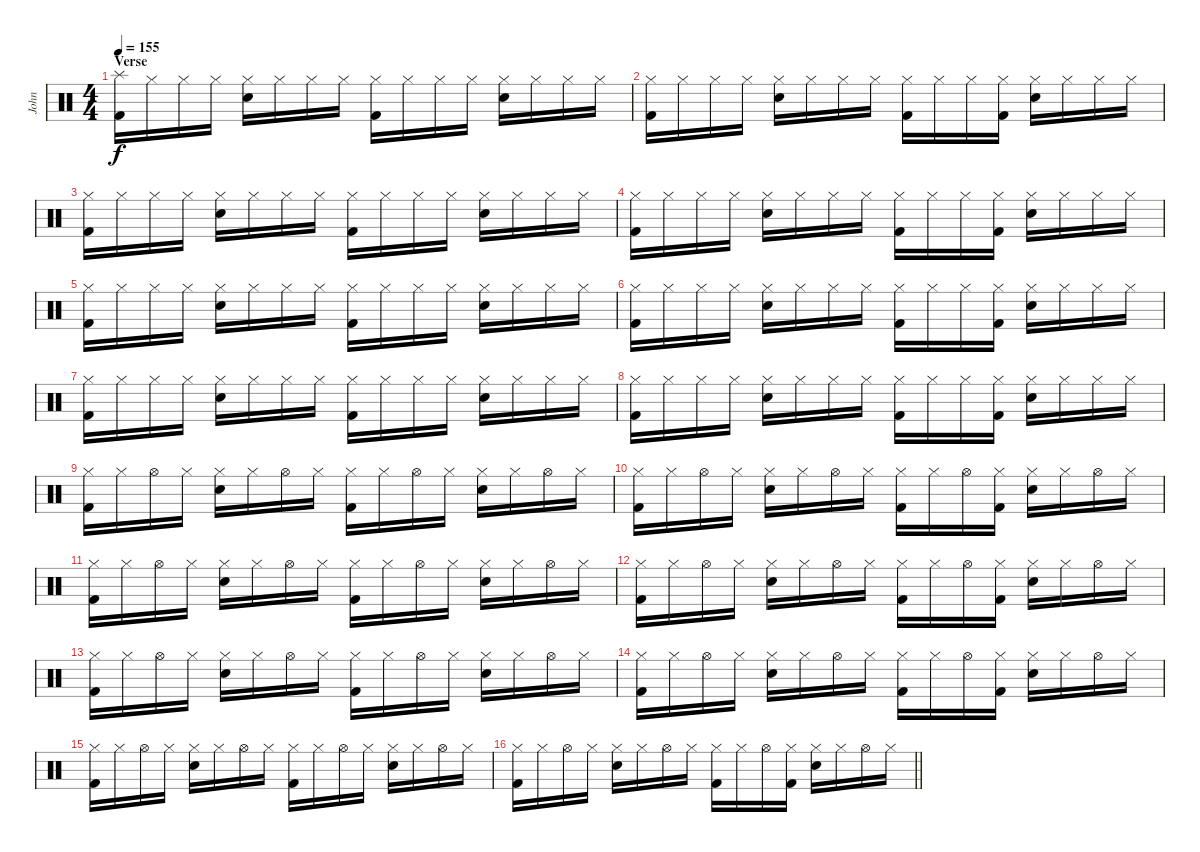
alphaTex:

\track ("John" "John") {instrument percussion}
\staff {score}
\articulation defaults
\ts (4 4)
\section ("" "Verse")
\tempo 155
\clef neutral
\ks c
("Splash (hit)" "Kick (hit) 2").16{dy f} "Hi-Hat (closed)".16 "Hi-Hat (closed)".16 "Hi-Hat (closed)".16 ("Hi-Hat (closed)" "Snare (hit) 2").16 "Hi-Hat (closed)".16 "Hi-Hat (closed)".16 "Hi-Hat (closed)".16 ("Hi-Hat (closed)" "Kick (hit) 2").16 "Hi-Hat (closed)".16 "Hi-Hat (closed)".16 "Hi-Hat (closed)".16 ("Hi-Hat (closed)" "Snare (hit) 2").16 "Hi-Hat (closed)".16 "Hi-Hat (closed)".16 "Hi-Hat (closed)".16 |
("Hi-Hat (closed)" "Kick (hit) 2").16 "Hi-Hat (closed)".16 "Hi-Hat (closed)".16 "Hi-Hat (closed)".16 ("Hi-Hat (closed)" "Snare (hit) 2").16 "Hi-Hat (closed)".16 "Hi-Hat (closed)".16 "Hi-Hat (closed)".16 ("Hi-Hat (closed)" "Kick (hit) 2").16 "Hi-Hat (closed)".16 "Hi-Hat (closed)".16 ("Hi-Hat (closed)" "Kick (hit) 2").16 ("Hi-Hat (closed)" "Snare (hit) 2").16 "Hi-Hat (closed)".16 "Hi-Hat (closed)".16 "Hi-Hat (closed)".16 |
("Hi-Hat (closed)" "Kick (hit) 2").16 "Hi-Hat (closed)".16 "Hi-Hat (closed)".16 "Hi-Hat (closed)".16 ("Hi-Hat (closed)" "Snare (hit) 2").16 "Hi-Hat (closed)".16 "Hi-Hat (closed)".16 "Hi-Hat (closed)".16 ("Hi-Hat (closed)" "Kick (hit) 2").16 "Hi-Hat (closed)".16 "Hi-Hat (closed)".16 "Hi-Hat (closed)".16 ("Hi-Hat (closed)" "Snare (hit) 2").16 "Hi-Hat (closed)".16 "Hi-Hat (closed)".16 "Hi-Hat (closed)".16 |
("Hi-Hat (closed)" "Kick (hit) 2").16 "Hi-Hat (closed)".16 "Hi-Hat (closed)".16 "Hi-Hat (closed)".16 ("Hi-Hat (closed)" "Snare (hit) 2").16 "Hi-Hat (closed)".16 "Hi-Hat (closed)".16 "Hi-Hat (closed)".16 ("Hi-Hat (closed)" "Kick (hit) 2").16 "Hi-Hat (closed)".16 "Hi-Hat (closed)".16 ("Hi-Hat (closed)" "Kick (hit) 2").16 ("Hi-Hat (closed)" "Snare (hit) 2").16 "Hi-Hat (closed)".16 "Hi-Hat (closed)".16 "Hi-Hat (closed)".16 |
("Hi-Hat (closed)" "Kick (hit) 2").16 "Hi-Hat (closed)".16 "Hi-Hat (closed)".16 "Hi-Hat (closed)".16 ("Hi-Hat (closed)" "Snare (hit) 2").16 "Hi-Hat (closed)".16 "Hi-Hat (closed)".16 "Hi-Hat (closed)".16 ("Hi-Hat (closed)" "Kick (hit) 2").16 "Hi-Hat (closed)".16 "Hi-Hat (closed)".16 "Hi-Hat (closed)".16 ("Hi-Hat (closed)" "Snare (hit) 2").16 "Hi-Hat (closed)".16 "Hi-Hat (closed)".16 "Hi-Hat (closed)".16 |
("Hi-Hat (closed)" "Kick (hit) 2").16 "Hi-Hat (closed)".16 "Hi-Hat (closed)".16 "Hi-Hat (closed)".16 ("Hi-Hat (closed)" "Snare (hit) 2").16 "Hi-Hat (closed)".16 "Hi-Hat (closed)".16 "Hi-Hat (closed)".16 ("Hi-Hat (closed)" "Kick (hit) 2").16 "Hi-Hat (closed)".16 "Hi-Hat (closed)".16 ("Hi-Hat (closed)" "Kick (hit) 2").16 ("Hi-Hat (closed)" "Snare (hit) 2").16 "Hi-Hat (closed)".16 "Hi-Hat (closed)".16 "Hi-Hat (closed)".16 |
("Hi-Hat (closed)" "Kick (hit) 2").16 "Hi-Hat (closed)".16 "Hi-Hat (closed)".16 "Hi-Hat (closed)".16 ("Hi-Hat (closed)" "Snare (hit) 2").16 "Hi-Hat (closed)".16 "Hi-Hat (closed)".16 "Hi-Hat (closed)".16 ("Hi-Hat (closed)" "Kick (hit) 2").16 "Hi-Hat (closed)".16 "Hi-Hat (closed)".16 "Hi-Hat (closed)".16 ("Hi-Hat (closed)" "Snare (hit) 2").16 "Hi-Hat (closed)".16 "Hi-Hat (closed)".16 "Hi-Hat (closed)".16 |
("Hi-Hat (closed)" "Kick (hit) 2").16 "Hi-Hat (closed)".16 "Hi-Hat (closed)".16 "Hi-Hat (closed)".16 ("Hi-Hat (closed)" "Snare (hit) 2").16 "Hi-Hat (closed)".16 "Hi-Hat (closed)".16 "Hi-Hat (closed)".16 ("Hi-Hat (closed)" "Kick (hit) 2").16 "Hi-Hat (closed)".16 "Hi-Hat (closed)".16 ("Hi-Hat (closed)" "Kick (hit) 2").16 ("Hi-Hat (closed)" "Snare (hit) 2").16 "Hi-Hat (closed)".16 "Hi-Hat (closed)".16 "Hi-Hat (closed)".16 |
("Hi-Hat (closed)" "Kick (hit) 2").16 "Hi-Hat (closed)".16 "Hi-Hat (open)".16 "Hi-Hat (closed)".16 ("Hi-Hat (closed)" "Snare (hit) 2").16 "Hi-Hat (closed)".16 "Hi-Hat (open)".16 "Hi-Hat (closed)".16 ("Hi-Hat (closed)" "Kick (hit) 2").16 "Hi-Hat (closed)".16 "Hi-Hat (open)".16 "Hi-Hat (closed)".16 ("Hi-Hat (closed)" "Snare (hit) 2").16 "Hi-Hat (closed)".16 "Hi-Hat (open)".16 "Hi-Hat (closed)".16 |
("Hi-Hat (closed)" "Kick (hit) 2").16 "Hi-Hat (closed)".16 "Hi-Hat (open)".16 "Hi-Hat (closed)".16 ("Hi-Hat (closed)" "Snare (hit) 2").16 "Hi-Hat (closed)".16 "Hi-Hat (open)".16 "Hi-Hat (closed)".16 ("Hi-Hat (closed)" "Kick (hit) 2").16 "Hi-Hat (closed)".16 "Hi-Hat (open)".16 ("Hi-Hat (closed)" "Kick (hit) 2").16 ("Hi-Hat (closed)" "Snare (hit) 2").16 "Hi-Hat (closed)".16 "Hi-Hat (open)".16 "Hi-Hat (closed)".16 |
("Hi-Hat (closed)" "Kick (hit) 2").16 "Hi-Hat (closed)".16 "Hi-Hat (open)".16 "Hi-Hat (closed)".16 ("Hi-Hat (closed)" "Snare (hit) 2").16 "Hi-Hat (closed)".16 "Hi-Hat (open)".16 "Hi-Hat (closed)".16 ("Hi-Hat (closed)" "Kick (hit) 2").16 "Hi-Hat (closed)".16 "Hi-Hat (open)".16 "Hi-Hat (closed)".16 ("Hi-Hat (closed)" "Snare (hit) 2").16 "Hi-Hat (closed)".16 "Hi-Hat (open)".16 "Hi-Hat (closed)".16 |
("Hi-Hat (closed)" "Kick (hit) 2").16 "Hi-Hat (closed)".16 "Hi-Hat (open)".16 "Hi-Hat (closed)".16 ("Hi-Hat (closed)" "Snare (hit) 2").16 "Hi-Hat (closed)".16 "Hi-Hat (open)".16 "Hi-Hat (closed)".16 ("Hi-Hat (closed)" "Kick (hit) 2").16 "Hi-Hat (closed)".16 "Hi-Hat (open)".16 ("Hi-Hat (closed)" "Kick (hit) 2").16 ("Hi-Hat (closed)" "Snare (hit) 2").16 "Hi-Hat (closed)".16 "Hi-Hat (open)".16 "Hi-Hat (closed)".16 |
("Hi-Hat (closed)" "Kick (hit) 2").16 "Hi-Hat (closed)".16 "Hi-Hat (open)".16 "Hi-Hat (closed)".16 ("Hi-Hat (closed)" "Snare (hit) 2").16 "Hi-Hat (closed)".16 "Hi-Hat (open)".16 "Hi-Hat (closed)".16 ("Hi-Hat (closed)" "Kick (hit) 2").16 "Hi-Hat (closed)".16 "Hi-Hat (open)".16 "Hi-Hat (closed)".16 ("Hi-Hat (closed)" "Snare (hit) 2").16 "Hi-Hat (closed)".16 "Hi-Hat (open)".16 "Hi-Hat (closed)".16 |
("Hi-Hat (closed)" "Kick (hit) 2").16 "Hi-Hat (closed)".16 "Hi-Hat (open)".16 "Hi-Hat (closed)".16 ("Hi-Hat (closed)" "Snare (hit) 2").16 "Hi-Hat (closed)".16 "Hi-Hat (open)".16 "Hi-Hat (closed)".16 ("Hi-Hat (closed)" "Kick (hit) 2").16 "Hi-Hat (closed)".16 "Hi-Hat (open)".16 ("Hi-Hat (closed)" "Kick (hit) 2").16 ("Hi-Hat (closed)" "Snare (hit) 2").16 "Hi-Hat (closed)".16 "Hi-Hat (open)".16 "Hi-Hat (closed)".16 |
("Hi-Hat (closed)" "Kick (hit) 2").16 "Hi-Hat (closed)".16 "Hi-Hat (open)".16 "Hi-Hat (closed)".16 ("Hi-Hat (closed)" "Snare (hit) 2").16 "Hi-Hat (closed)".16 "Hi-Hat (open)".16 "Hi-Hat (closed)".16 ("Hi-Hat (closed)" "Kick (hit) 2").16 "Hi-Hat (closed)".16 "Hi-Hat (open)".16 "Hi-Hat (closed)".16 ("Hi-Hat (closed)" "Snare (hit) 2").16 "Hi-Hat (closed)".16 "Hi-Hat (open)".16 "Hi-Hat (closed)".16 |
\barLineRight lightlight
("Hi-Hat (closed)" "Kick (hit) 2").16 "Hi-Hat (closed)".16 "Hi-Hat (open)".16 "Hi-Hat (closed)".16 ("Hi-Hat (closed)" "Snare (hit) 2").16 "Hi-Hat (closed)".16 "Hi-Hat (open)".16 "Hi-Hat (closed)".16 ("Hi-Hat (closed)" "Kick (hit) 2").16 "Hi-Hat (closed)".16 "Hi-Hat (open)".16 ("Hi-Hat (closed)" "Kick (hit) 2").16 ("Hi-Hat (closed)" "Snare (hit) 2").16 "Hi-Hat (closed)".16 "Hi-Hat (open)".16 "Hi-Hat (closed)".16
